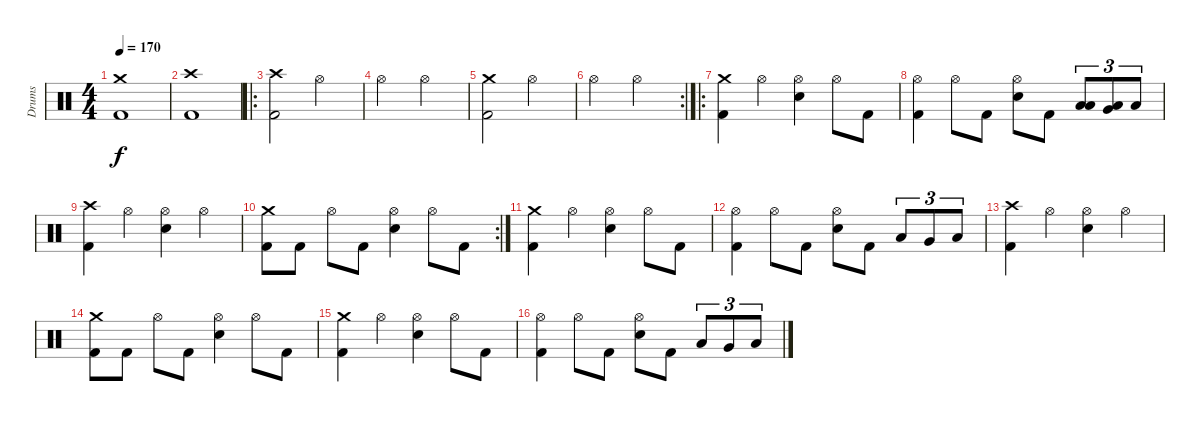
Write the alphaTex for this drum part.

\track ("Drums" "Drums") {instrument percussion}
\staff {score}
\articulation defaults
\ts (4 4)
\tempo 170
\clef neutral
\ks c
("Kick (hit) 2" "Crash medium (hit)").1{dy f} |
("Kick (hit) 2" "Crash high (hit)").1 |
\ro
("Kick (hit) 2" "Crash high (hit)").2 "Hi-Hat (open)".2 |
"Hi-Hat (open)".2 "Hi-Hat (open)".2 |
("Kick (hit) 2" "Crash medium (hit)").2 "Hi-Hat (open)".2 |
\rc 2 "Hi-Hat (open)".2 "Hi-Hat (open)".2
|
\ro
("Kick (hit) 2" "Crash medium (hit)").4 "Hi-Hat (open)".4 ("Snare (hit) 2" "Hi-Hat (open)").4 "Hi-Hat (open)".8 "Kick (hit) 2".8 |
("Kick (hit) 2" "Hi-Hat (open)").4 "Hi-Hat (open)".8 "Kick (hit) 2".8 ("Snare (hit) 2" "Hi-Hat (open)").8 "Kick (hit) 2".8 ("Low Tom (hit)" "Low Floor Tom (hit)").8{tu (3 2)} ("Very Low Tom (hit)" "Low Floor Tom (hit)").8{tu (3 2)} "Low Floor Tom (hit)".8{tu (3 2)} |
("Kick (hit) 2" "Crash high (hit)").4 "Hi-Hat (open)".4 ("Snare (hit) 2" "Hi-Hat (open)").4 "Hi-Hat (open)".4 |
\rc 2
("Kick (hit) 2" "Crash medium (hit)").8 "Kick (hit) 2".8 "Hi-Hat (open)".8 "Kick (hit) 2".8 ("Snare (hit) 2" "Hi-Hat (open)").4 "Hi-Hat (open)".8 "Kick (hit) 2".8 |
("Kick (hit) 2" "Crash medium (hit)").4 "Hi-Hat (open)".4 ("Snare (hit) 2" "Hi-Hat (open)").4 "Hi-Hat (open)".8 "Kick (hit) 2".8 |
("Kick (hit) 2" "Hi-Hat (open)").4 "Hi-Hat (open)".8 "Kick (hit) 2".8 ("Snare (hit) 2" "Hi-Hat (open)").8 "Kick (hit) 2".8 "Low Tom (hit)".8{tu (3 2)} "Very Low Tom (hit)".8{tu (3 2)} "Low Floor Tom (hit)".8{tu (3 2)} |
("Kick (hit) 2" "Crash high (hit)").4 "Hi-Hat (open)".4 ("Snare (hit) 2" "Hi-Hat (open)").4 "Hi-Hat (open)".4 |
("Kick (hit) 2" "Crash medium (hit)").8 "Kick (hit) 2".8 "Hi-Hat (open)".8 "Kick (hit) 2".8 ("Snare (hit) 2" "Hi-Hat (open)").4 "Hi-Hat (open)".8 "Kick (hit) 2".8 |
("Kick (hit) 2" "Crash medium (hit)").4 "Hi-Hat (open)".4 ("Snare (hit) 2" "Hi-Hat (open)").4 "Hi-Hat (open)".8 "Kick (hit) 2".8 |
("Kick (hit) 2" "Hi-Hat (open)").4 "Hi-Hat (open)".8 "Kick (hit) 2".8 ("Snare (hit) 2" "Hi-Hat (open)").8 "Kick (hit) 2".8 "Low Tom (hit)".8{tu (3 2)} "Very Low Tom (hit)".8{tu (3 2)} "Low Floor Tom (hit)".8{tu (3 2)}
